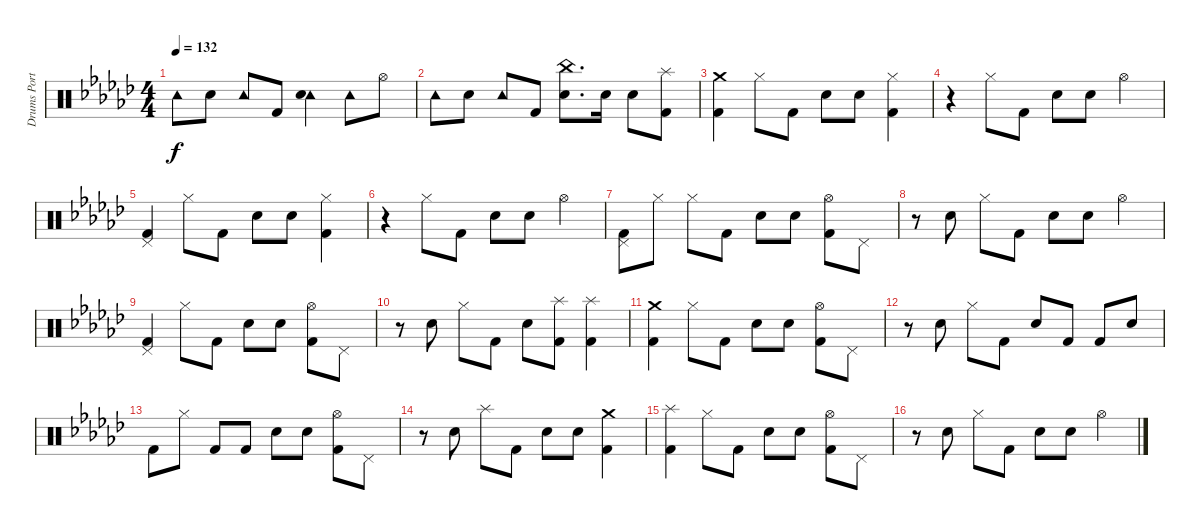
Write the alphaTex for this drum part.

\track ("Drums Portnoy" "Drums Port") {instrument percussion}
\staff {score}
\articulation defaults
\ts (4 4)
\tempo 132
\clef neutral
\ks gb "Tambourine (hit)".8{dy f} "Snare (hit) 2".8 "Tambourine (hit)".8 "Kick (hit) 2".8
("Tambourine (hit)" "Snare (hit) 2").4 "Tambourine (hit)".8 "Hi-Hat (open)".8 |
"Tambourine (hit)".8 "Snare (hit) 2".8 "Tambourine (hit)".8 "Kick (hit) 2".8 ("China (hit)" "Snare (hit) 2").8{d} "Snare (hit) 2".16 "Snare (hit) 2".8 ("Splash (hit)" "Kick (hit) 2").8 |
("Crash medium (hit)" "Kick (hit) 2").4 "Hi-Hat (closed)".8 "Kick (hit) 2".8 "Snare (hit) 2".8 "Snare (hit) 2".8 ("Hi-Hat (closed)" "Kick (hit) 2").4 |
r.4 "Hi-Hat (closed)".8 "Kick (hit) 2".8 "Snare (hit) 2".8 "Snare (hit) 2".8 "Hi-Hat (open)".4 |
("Pedal Hi-Hat (hit)" "Kick (hit) 2").4 "Hi-Hat (closed)".8 "Kick (hit) 2".8 "Snare (hit) 2".8 "Snare (hit) 2".8 ("Hi-Hat (closed)" "Kick (hit) 2").4 |
r.4 "Hi-Hat (closed)".8 "Kick (hit) 2".8 "Snare (hit) 2".8 "Snare (hit) 2".8 "Hi-Hat (open)".4 |
("Pedal Hi-Hat (hit)" "Kick (hit) 2").8 "Hi-Hat (closed)".8 "Hi-Hat (closed)".8 "Kick (hit) 2".8 "Snare (hit) 2".8 "Snare (hit) 2".8 ("Hi-Hat (open)" "Kick (hit) 2").8 "Pedal Hi-Hat (hit)".8 |
r.8 "Snare (hit) 2".8 "Hi-Hat (closed)".8 "Kick (hit) 2".8 "Snare (hit) 2".8 "Snare (hit) 2".8 "Hi-Hat (open)".4 |
("Pedal Hi-Hat (hit)" "Kick (hit) 2").4 "Hi-Hat (closed)".8 "Kick (hit) 2".8 "Snare (hit) 2".8 "Snare (hit) 2".8 ("Hi-Hat (open)" "Kick (hit) 2").8 "Pedal Hi-Hat (hit)".8 |
r.8 "Snare (hit) 2".8 "Hi-Hat (closed)".8 "Kick (hit) 2".8 "Snare (hit) 2".8 ("Splash (hit)" "Kick (hit) 2").8 ("Splash (hit)" "Kick (hit) 2").4 |
("Crash medium (hit)" "Kick (hit) 2").4 "Hi-Hat (closed)".8 "Kick (hit) 2".8 "Snare (hit) 2".8 "Snare (hit) 2".8 ("Hi-Hat (open)" "Kick (hit) 2").8 "Pedal Hi-Hat (hit)".8 |
r.8 "Snare (hit) 2".8 "Hi-Hat (closed)".8 "Kick (hit) 2".8 "Snare (hit) 2".8 "Kick (hit) 2".8 "Kick (hit) 2".8 "Snare (hit) 2".8 |
"Kick (hit) 2".8 "Hi-Hat (closed)".8 "Kick (hit) 2".8 "Kick (hit) 2".8 "Snare (hit) 2".8 "Snare (hit) 2".8 ("Hi-Hat (open)" "Kick (hit) 2").8 "Pedal Hi-Hat (hit)".8 |
r.8 "Snare (hit) 2".8 "Splash (hit)".8 "Kick (hit) 2".8 "Snare (hit) 2".8 "Snare (hit) 2".8 ("Crash medium (hit)" "Kick (hit) 2").4 |
("Splash (hit)" "Kick (hit) 2").4 "Hi-Hat (closed)".8 "Kick (hit) 2".8 "Snare (hit) 2".8 "Snare (hit) 2".8 ("Hi-Hat (open)" "Kick (hit) 2").8 "Pedal Hi-Hat (hit)".8 |
r.8 "Snare (hit) 2".8 "Hi-Hat (closed)".8 "Kick (hit) 2".8 "Snare (hit) 2".8 "Snare (hit) 2".8 "Hi-Hat (open)".4
